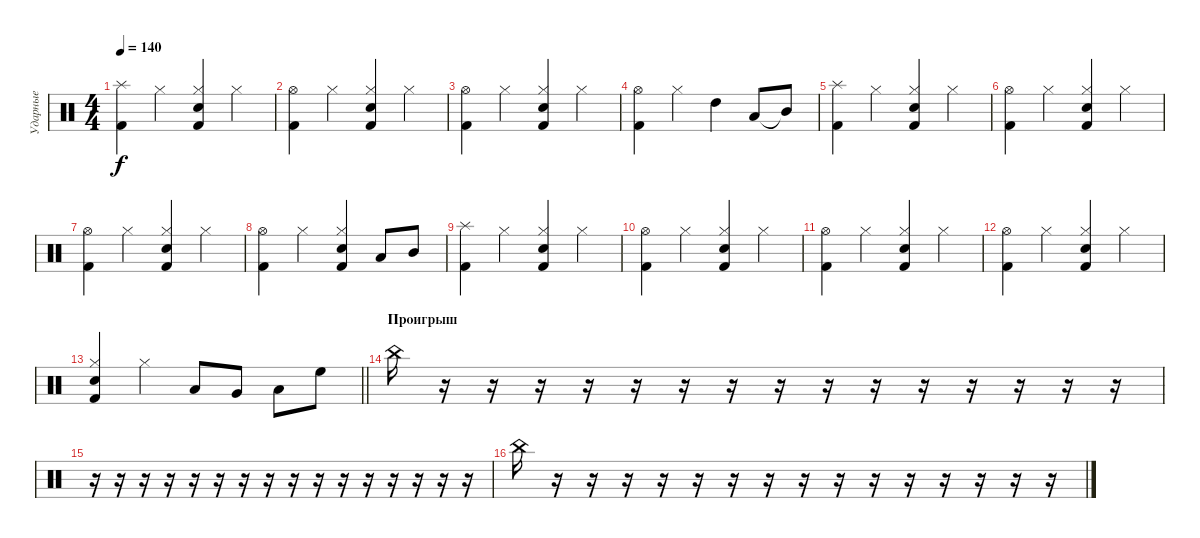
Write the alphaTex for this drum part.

\track ("Ударные" "Ударные") {instrument percussion}
\staff {score}
\articulation defaults
\ts (4 4)
\tempo 140
\clef neutral
\ks c
("Splash (hit)" "Kick (hit) 2").4{dy f} "Hi-Hat (closed)".4 ("Hi-Hat (closed)" "Electric Snare (hit)" "Kick (hit) 2").4 "Hi-Hat (closed)".4 |
("Hi-Hat (open)" "Kick (hit) 2").4 "Hi-Hat (closed)".4 ("Hi-Hat (closed)" "Electric Snare (hit)" "Kick (hit) 2").4 "Hi-Hat (closed)".4 |
("Hi-Hat (open)" "Kick (hit) 2").4 "Hi-Hat (closed)".4 ("Hi-Hat (closed)" "Electric Snare (hit)" "Kick (hit) 2").4 "Hi-Hat (closed)".4 |
("Hi-Hat (open)" "Kick (hit) 2").4 "Hi-Hat (closed)".4 "High Tom (hit)".4 "Low Tom (hit)".8 "Mid Tom (hit)"{t}.8 |
("Splash (hit)" "Kick (hit) 2").4 "Hi-Hat (closed)".4 ("Hi-Hat (closed)" "Electric Snare (hit)" "Kick (hit) 2").4 "Hi-Hat (closed)".4 |
("Hi-Hat (open)" "Kick (hit) 2").4 "Hi-Hat (closed)".4 ("Hi-Hat (closed)" "Electric Snare (hit)" "Kick (hit) 2").4 "Hi-Hat (closed)".4 |
("Hi-Hat (open)" "Kick (hit) 2").4 "Hi-Hat (closed)".4 ("Hi-Hat (closed)" "Electric Snare (hit)" "Kick (hit) 2").4 "Hi-Hat (closed)".4 |
("Hi-Hat (open)" "Kick (hit) 2").4 "Hi-Hat (closed)".4 ("Hi-Hat (closed)" "Electric Snare (hit)" "Kick (hit) 2").4 "Low Tom (hit)".8 "Mid Tom (hit)".8 |
("Splash (hit)" "Kick (hit) 2").4 "Hi-Hat (closed)".4 ("Hi-Hat (closed)" "Electric Snare (hit)" "Kick (hit) 2").4 "Hi-Hat (closed)".4 |
("Hi-Hat (open)" "Kick (hit) 2").4 "Hi-Hat (closed)".4 ("Hi-Hat (closed)" "Electric Snare (hit)" "Kick (hit) 2").4 "Hi-Hat (closed)".4 |
("Hi-Hat (open)" "Kick (hit) 2").4 "Hi-Hat (closed)".4 ("Hi-Hat (closed)" "Electric Snare (hit)" "Kick (hit) 2").4 "Hi-Hat (closed)".4 |
("Hi-Hat (open)" "Kick (hit) 2").4 "Hi-Hat (closed)".4 ("Hi-Hat (closed)" "Electric Snare (hit)" "Kick (hit) 2").4 "Hi-Hat (closed)".4 |
\barLineRight lightlight
("Hi-Hat (closed)" "Electric Snare (hit)" "Kick (hit) 2").4 "Hi-Hat (closed)".4 "Low Floor Tom (hit)".8 "Very Low Tom (hit)".8 "Low Tom (hit)".8 "High Floor Tom (hit)".8 |
\section ("" "Проигрыш")
"China (hit)".16 r.16 r.16 r.16 r.16 r.16 r.16 r.16 r.16 r.16 r.16 r.16 r.16 r.16 r.16 r.16 |
r.16 r.16 r.16 r.16 r.16 r.16 r.16 r.16 r.16 r.16 r.16 r.16 r.16 r.16 r.16 r.16 |
"China (hit)".16 r.16 r.16 r.16 r.16 r.16 r.16 r.16 r.16 r.16 r.16 r.16 r.16 r.16 r.16 r.16
